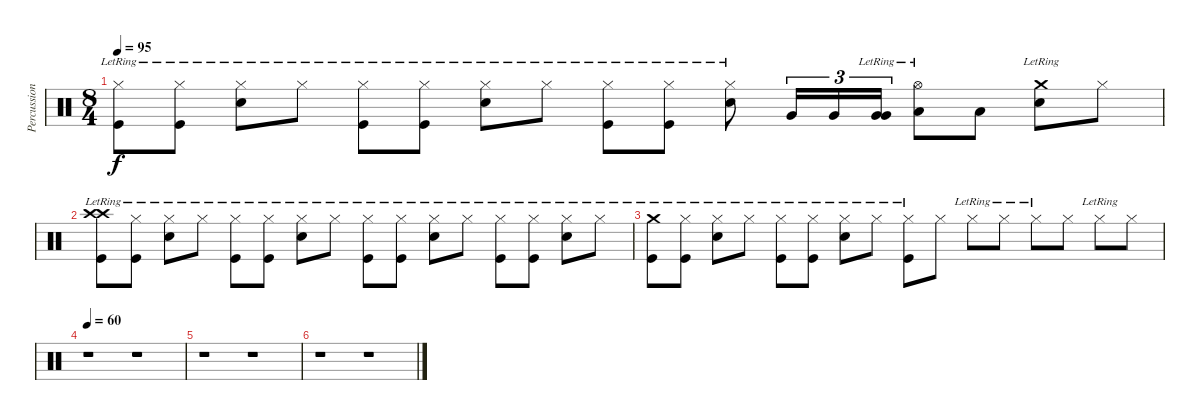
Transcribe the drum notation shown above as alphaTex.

\track ("Percussion" "Percussion") {instrument percussion}
\staff {score}
\articulation defaults
\ts (8 4)
\tempo 95
\clef neutral
\ks c
("Hi-Hat (closed)"{lr} "Kick (hit)"{lr}).8{dy f} ("Hi-Hat (closed)"{lr} "Kick (hit)").8 ("Hi-Hat (closed)"{lr} "Electric Snare (hit)"{lr}).8 "Hi-Hat (closed)"{lr}.8 ("Hi-Hat (closed)"{lr} "Kick (hit)"{lr}).8 ("Hi-Hat (closed)"{lr} "Kick (hit)").8 ("Hi-Hat (closed)"{lr} "Electric Snare (hit)"{lr}).8 "Hi-Hat (closed)"{lr}.8 ("Hi-Hat (closed)"{lr} "Kick (hit)"{lr}).8 ("Hi-Hat (closed)"{lr} "Kick (hit)").8 ("Hi-Hat (closed)"{lr} "Electric Snare (hit)"{lr}).8 "Very Low Tom (hit)".16{tu (3 2)} "Very Low Tom (hit)".16{tu (3 2)} ("Very Low Tom (hit)"{lr} "Very Low Tom (hit)").16{tu (3 2)} ("Hi-Hat (open)"{lr} "Low Floor Tom (hit)").8 "Low Floor Tom (hit)".8 ("Crash medium (hit)"{lr} "Electric Snare (hit)"{lr}).8 "Hi-Hat (closed)".8 |
("Crash high (hit)" "Crash high (hit)"{lr} "Kick (hit)"{lr}).8 ("Hi-Hat (closed)"{lr} "Kick (hit)").8 ("Hi-Hat (closed)"{lr} "Electric Snare (hit)"{lr}).8 "Hi-Hat (closed)"{lr}.8 ("Hi-Hat (closed)"{lr} "Kick (hit)"{lr}).8 ("Hi-Hat (closed)"{lr} "Kick (hit)").8 ("Hi-Hat (closed)"{lr} "Electric Snare (hit)"{lr}).8 "Hi-Hat (closed)"{lr}.8 ("Hi-Hat (closed)"{lr} "Kick (hit)"{lr}).8 ("Hi-Hat (closed)"{lr} "Kick (hit)").8 ("Hi-Hat (closed)"{lr} "Electric Snare (hit)"{lr}).8 "Hi-Hat (closed)"{lr}.8 ("Hi-Hat (closed)"{lr} "Kick (hit)"{lr}).8 ("Hi-Hat (closed)"{lr} "Kick (hit)").8 ("Hi-Hat (closed)"{lr} "Electric Snare (hit)"{lr}).8 "Hi-Hat (closed)"{lr}.8 |
("Crash medium (hit)"{lr} "Kick (hit)"{lr}).8 ("Hi-Hat (closed)"{lr} "Kick (hit)").8 ("Hi-Hat (closed)"{lr} "Electric Snare (hit)"{lr}).8 "Hi-Hat (closed)"{lr}.8 ("Hi-Hat (closed)"{lr} "Kick (hit)"{lr}).8 ("Hi-Hat (closed)"{lr} "Kick (hit)").8 ("Hi-Hat (closed)"{lr} "Electric Snare (hit)"{lr}).8 "Hi-Hat (closed)"{lr}.8 ("Hi-Hat (closed)"{lr} "Kick (hit)").8 "Hi-Hat (closed)".8 "Hi-Hat (closed)"{lr}.8 "Hi-Hat (closed)"{lr}.8 "Hi-Hat (closed)"{lr}.8 "Hi-Hat (closed)".8 "Hi-Hat (closed)"{lr}.8 "Hi-Hat (closed)".8 |
\tempo 60
r.1 r.1 |
r.1 r.1 |
r.1 r.1
